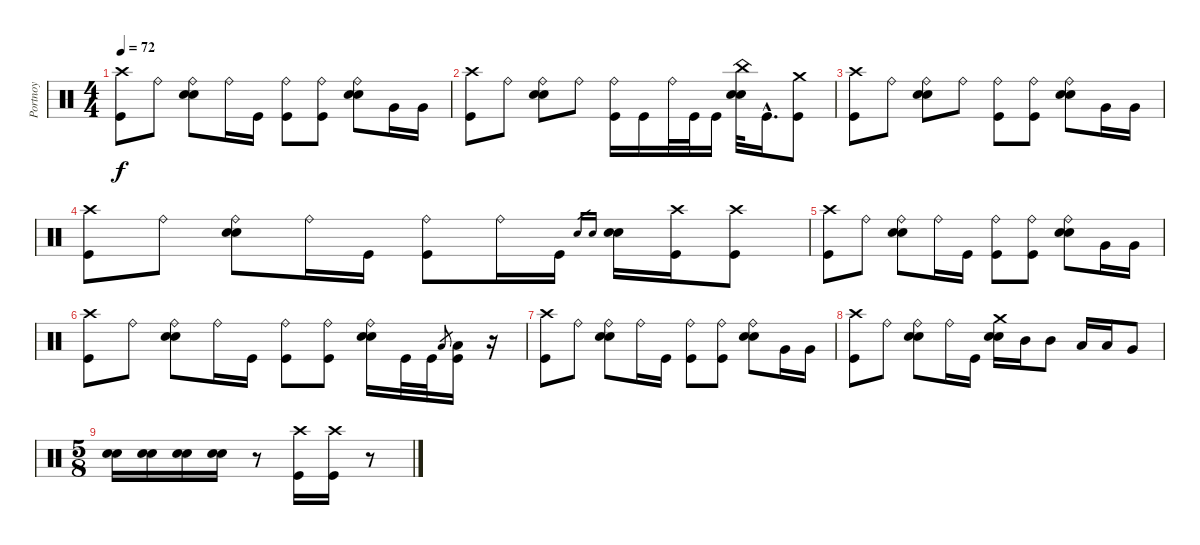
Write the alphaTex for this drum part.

\track ("Portnoy" "Portnoy") {instrument percussion}
\staff {score}
\articulation defaults
\ts (4 4)
\tempo 72
\clef neutral
\ks c
("Crash high (hit)" "Kick (hit)").8{dy f} "Ride (bell)".8 ("Ride (bell)" "Snare (hit) 2" "Electric Snare (hit)").8 "Ride (bell)".16 "Kick (hit)".16 ("Ride (bell)" "Kick (hit)").8 ("Ride (bell)" "Kick (hit)").8 ("Ride (bell)" "Snare (hit) 2" "Electric Snare (hit)").8 "Very Low Tom (hit)".16 "Very Low Tom (hit)".16 |
("Crash high (hit)" "Kick (hit)").8 "Ride (bell)".8 ("Ride (bell)" "Snare (hit) 2" "Electric Snare (hit)").8 "Ride (bell)".8 ("Ride (bell)" "Kick (hit)").16 "Kick (hit)".16 "Ride (bell)".32 "Kick (hit)".32 "Kick (hit)".16 ("China (hit)" "Snare (hit) 2" "Electric Snare (hit)").32 "Kick (hit)"{hac}.16{d} ("Crash medium (hit)" "Kick (hit)").8 |
("Crash high (hit)" "Kick (hit)").8 "Ride (bell)".8 ("Ride (bell)" "Snare (hit) 2" "Electric Snare (hit)").8 "Ride (bell)".8 ("Ride (bell)" "Kick (hit)").8 ("Ride (bell)" "Kick (hit)").8 ("Ride (bell)" "Snare (hit) 2" "Electric Snare (hit)").8 "Very Low Tom (hit)".16 "Very Low Tom (hit)".16 |
("Crash high (hit)" "Kick (hit)").8 "Ride (bell)".8 ("Ride (bell)" "Snare (hit) 2" "Electric Snare (hit)").8 "Ride (bell)".16 "Kick (hit)".16 ("Ride (bell)" "Kick (hit)").8 "Ride (bell)".16 "Kick (hit)".16 "Snare (hit) 2".16{gr} "Electric Snare (hit)".16{gr} ("Snare (hit) 2" "Electric Snare (hit)").16 ("Crash high (hit)" "Kick (hit)").16 ("Crash high (hit)" "Kick (hit)").8 |
("Crash high (hit)" "Kick (hit)").8 "Ride (bell)".8 ("Ride (bell)" "Snare (hit) 2" "Electric Snare (hit)").8 "Ride (bell)".16 "Kick (hit)".16 ("Ride (bell)" "Kick (hit)").8 ("Ride (bell)" "Kick (hit)").8 ("Ride (bell)" "Snare (hit) 2" "Electric Snare (hit)").8 "Very Low Tom (hit)".16 "Very Low Tom (hit)".16 |
("Crash high (hit)" "Kick (hit)").8 "Ride (bell)".8 ("Ride (bell)" "Snare (hit) 2" "Electric Snare (hit)").8 "Ride (bell)".16 "Kick (hit)".16 ("Ride (bell)" "Kick (hit)").8 ("Ride (bell)" "Kick (hit)").8 ("Ride (bell)" "Snare (hit) 2" "Electric Snare (hit)").16 "Kick (hit)".32 "Kick (hit)".32 "Low Floor Tom (hit)".8{gr} ("Low Floor Tom (hit)" "Kick (hit)").16 r.16 |
("Crash high (hit)" "Kick (hit)").8 "Ride (bell)".8 ("Ride (bell)" "Snare (hit) 2" "Electric Snare (hit)").8 "Ride (bell)".16 "Kick (hit)".16 ("Ride (bell)" "Kick (hit)").8 ("Ride (bell)" "Kick (hit)").8 ("Ride (bell)" "Snare (hit) 2" "Electric Snare (hit)").8 "Very Low Tom (hit)".16 "Very Low Tom (hit)".16 |
("Crash high (hit)" "Kick (hit)").8 "Ride (bell)".8 ("Ride (bell)" "Snare (hit) 2" "Electric Snare (hit)").8 "Ride (bell)".16 "Kick (hit)".16 ("Crash medium (hit)" "Snare (hit) 2" "Electric Snare (hit)").16 "Mid Tom (hit)".16 "Mid Tom (hit)".8 "Low Tom (hit)".16 "Low Tom (hit)".16 "Very Low Tom (hit)".8 |
\ts (5 8)
("Snare (hit) 2" "Electric Snare (hit)").16 ("Snare (hit) 2" "Electric Snare (hit)").16 ("Snare (hit) 2" "Electric Snare (hit)").16 ("Snare (hit) 2" "Electric Snare (hit)").16 r.8 ("Crash high (hit)" "Kick (hit)").16 ("Crash high (hit)" "Kick (hit)").16 r.8
